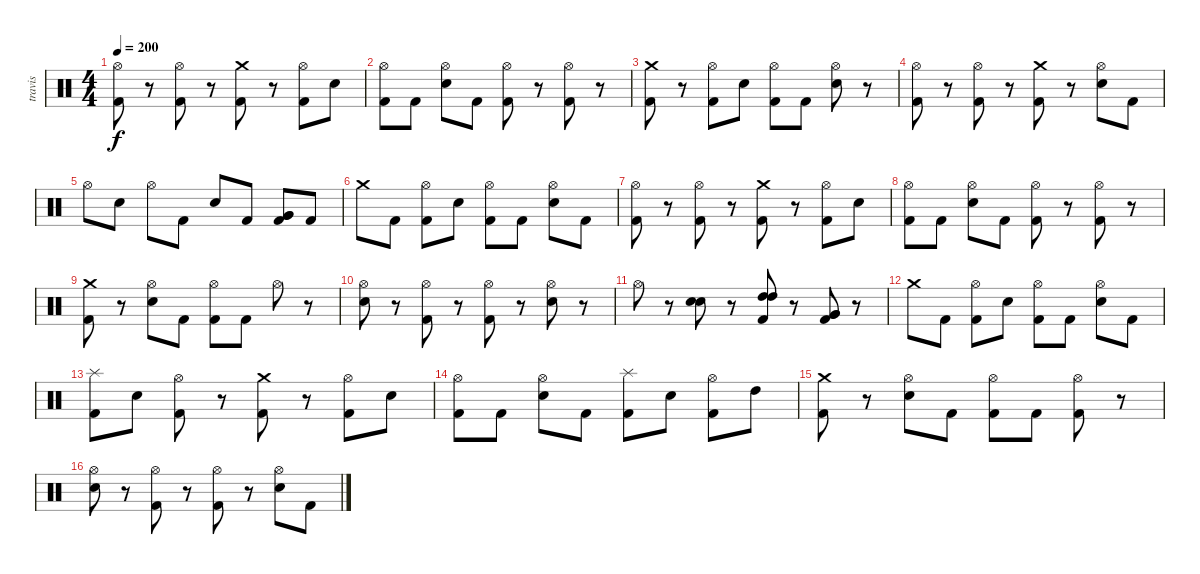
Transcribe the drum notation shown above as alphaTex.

\track ("travis" "travis") {instrument percussion}
\staff {score}
\articulation defaults
\ts (4 4)
\tempo 200
\clef neutral
\ks c
("Hi-Hat (open)" "Kick (hit) 2").8{dy f} r.8 ("Hi-Hat (open)" "Kick (hit) 2").8 r.8 ("Crash medium (hit)" "Kick (hit) 2").8 r.8 ("Hi-Hat (open)" "Kick (hit) 2").8 "Electric Snare (hit)".8 |
("Hi-Hat (open)" "Kick (hit) 2").8 "Kick (hit) 2".8 ("Hi-Hat (open)" "Electric Snare (hit)").8 "Kick (hit) 2".8 ("Hi-Hat (open)" "Kick (hit) 2").8 r.8 ("Hi-Hat (open)" "Kick (hit) 2").8 r.8 |
("Crash medium (hit)" "Kick (hit) 2").8 r.8 ("Hi-Hat (open)" "Kick (hit) 2").8 "Electric Snare (hit)".8 ("Hi-Hat (open)" "Kick (hit) 2").8 "Kick (hit) 2".8 ("Hi-Hat (open)" "Electric Snare (hit)").8 r.8 |
("Hi-Hat (open)" "Kick (hit) 2").8 r.8 ("Hi-Hat (open)" "Kick (hit) 2").8 r.8 ("Crash medium (hit)" "Kick (hit) 2").8 r.8 ("Hi-Hat (open)" "Electric Snare (hit)").8 "Kick (hit) 2".8 |
"Hi-Hat (open)".8 "Electric Snare (hit)".8 "Hi-Hat (open)".8 "Kick (hit) 2".8 "Electric Snare (hit)".8 "Kick (hit) 2".8 ("Very Low Tom (hit)" "Very Low Tom (hit)" "Kick (hit) 2").8 "Kick (hit) 2".8 |
"Crash medium (hit)".8 "Kick (hit) 2".8 ("Hi-Hat (open)" "Kick (hit) 2").8 "Electric Snare (hit)".8 ("Hi-Hat (open)" "Kick (hit) 2").8 "Kick (hit) 2".8 ("Hi-Hat (open)" "Electric Snare (hit)").8 "Kick (hit) 2".8 |
("Hi-Hat (open)" "Kick (hit) 2").8 r.8 ("Hi-Hat (open)" "Kick (hit) 2").8 r.8 ("Crash medium (hit)" "Kick (hit) 2").8 r.8 ("Hi-Hat (open)" "Kick (hit) 2").8 "Electric Snare (hit)".8 |
("Hi-Hat (open)" "Kick (hit) 2").8 "Kick (hit) 2".8 ("Hi-Hat (open)" "Electric Snare (hit)").8 "Kick (hit) 2".8 ("Hi-Hat (open)" "Kick (hit) 2").8 r.8 ("Hi-Hat (open)" "Kick (hit) 2").8 r.8 |
("Crash medium (hit)" "Kick (hit) 2").8 r.8 ("Hi-Hat (open)" "Electric Snare (hit)").8 "Kick (hit) 2".8 ("Hi-Hat (open)" "Kick (hit) 2").8 "Kick (hit) 2".8 "Hi-Hat (open)".8 r.8 |
("Hi-Hat (open)" "Electric Snare (hit)").8 r.8 ("Hi-Hat (open)" "Kick (hit) 2").8 r.8 ("Hi-Hat (open)" "Kick (hit) 2").8 r.8 ("Hi-Hat (open)" "Electric Snare (hit)").8 r.8 |
"Hi-Hat (open)".8 r.8 ("Electric Snare (hit)" "Electric Snare (hit)").8 r.8 ("Kick (hit) 2" "High Tom (hit)" "High Tom (hit)").8 r.8 ("Very Low Tom (hit)" "Very Low Tom (hit)" "Kick (hit) 2").8 r.8 |
"Crash medium (hit)".8 "Kick (hit) 2".8 ("Hi-Hat (open)" "Kick (hit) 2").8 "Electric Snare (hit)".8 ("Hi-Hat (open)" "Kick (hit) 2").8 "Kick (hit) 2".8 ("Hi-Hat (open)" "Electric Snare (hit)").8 "Kick (hit) 2".8 |
("Splash (hit)" "Kick (hit) 2").8 "Electric Snare (hit)".8 ("Hi-Hat (open)" "Kick (hit) 2").8 r.8 ("Crash medium (hit)" "Kick (hit) 2").8 r.8 ("Hi-Hat (open)" "Kick (hit) 2").8 "Electric Snare (hit)".8 |
("Hi-Hat (open)" "Kick (hit) 2").8 "Kick (hit) 2".8 ("Hi-Hat (open)" "Electric Snare (hit)").8 "Kick (hit) 2".8 ("Splash (hit)" "Kick (hit) 2").8 "Electric Snare (hit)".8 ("Hi-Hat (open)" "Kick (hit) 2").8 "High Tom (hit)".8 |
("Crash medium (hit)" "Kick (hit) 2").8 r.8 ("Hi-Hat (open)" "Electric Snare (hit)").8 "Kick (hit) 2".8 ("Hi-Hat (open)" "Kick (hit) 2").8 "Kick (hit) 2".8 ("Hi-Hat (open)" "Kick (hit) 2").8 r.8 |
("Hi-Hat (open)" "Electric Snare (hit)").8 r.8 ("Hi-Hat (open)" "Kick (hit) 2").8 r.8 ("Hi-Hat (open)" "Kick (hit) 2").8 r.8 ("Hi-Hat (open)" "Electric Snare (hit)").8 "Kick (hit) 2".8
